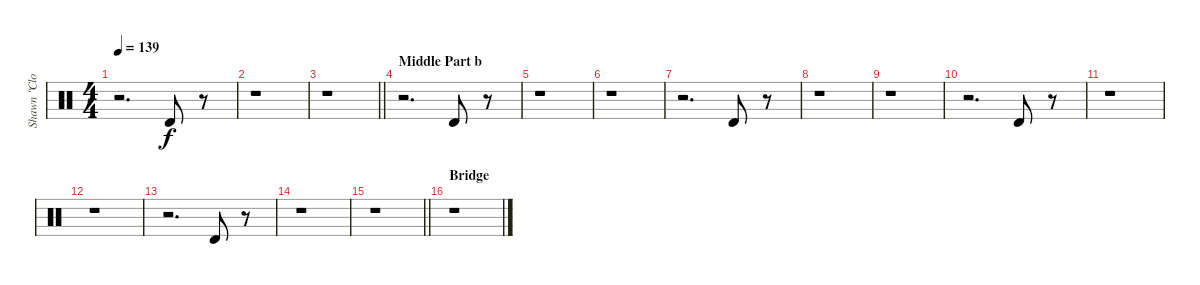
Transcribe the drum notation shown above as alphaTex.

\track ("Shawn \"Clown\" Crahan & Chris Fehn" "Shawn \"Clo") {instrument percussion}
\staff {score}
\articulation defaults
\ts (4 4)
\tempo 139
\clef neutral
\ks c
r.2{d dy f} "Timbale high (hit)".8 r.8 |
r.1 |
\barLineRight lightlight
r.1 |
\section ("" "Middle Part b")
r.2{d} "Timbale high (hit)".8 r.8 |
r.1 |
r.1 |
r.2{d} "Timbale high (hit)".8 r.8 |
r.1 |
r.1 |
r.2{d} "Timbale high (hit)".8 r.8 |
r.1 |
r.1 |
r.2{d} "Timbale high (hit)".8 r.8 |
r.1 |
\barLineRight lightlight
r.1 |
\section ("" "Bridge")
r.1
